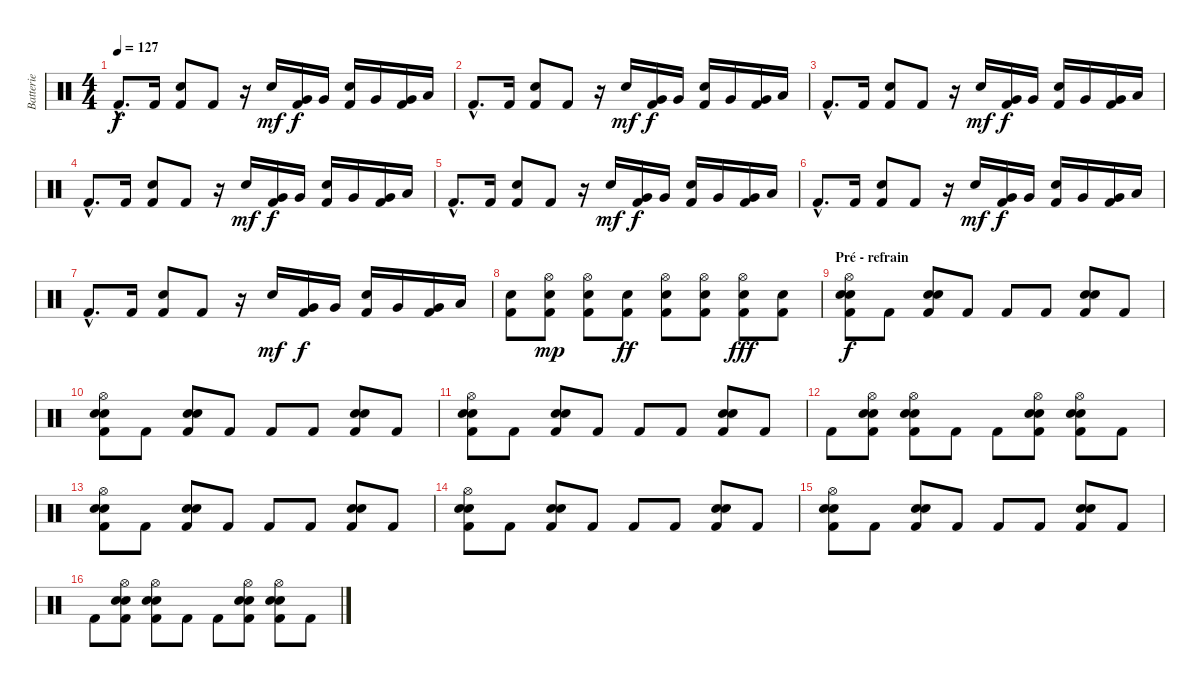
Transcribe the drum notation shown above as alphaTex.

\track ("Batterie" "Batterie") {instrument percussion}
\staff {score}
\articulation defaults
\ts (4 4)
\tempo 127
\clef neutral
\ks c "Kick (hit) 2"{hac}.8{d dy f} "Kick (hit) 2".16
("Electric Snare (hit)" "Kick (hit) 2").8 "Kick (hit) 2".8 r.16 "Electric Snare (hit)".16{dy mf} ("Very Low Tom (hit)" "Kick (hit) 2").16{dy f} "Very Low Tom (hit)".16 ("Electric Snare (hit)" "Kick (hit) 2").16 "Very Low Tom (hit)".16 ("Very Low Tom (hit)" "Kick (hit) 2").16 "Low Floor Tom (hit)".16 |
"Kick (hit) 2"{hac}.8{d} "Kick (hit) 2".16 ("Electric Snare (hit)" "Kick (hit) 2").8 "Kick (hit) 2".8 r.16 "Electric Snare (hit)".16{dy mf} ("Very Low Tom (hit)" "Kick (hit) 2").16{dy f} "Very Low Tom (hit)".16 ("Electric Snare (hit)" "Kick (hit) 2").16 "Very Low Tom (hit)".16 ("Very Low Tom (hit)" "Kick (hit) 2").16 "Low Floor Tom (hit)".16 |
"Kick (hit) 2"{hac}.8{d} "Kick (hit) 2".16 ("Electric Snare (hit)" "Kick (hit) 2").8 "Kick (hit) 2".8 r.16 "Electric Snare (hit)".16{dy mf} ("Very Low Tom (hit)" "Kick (hit) 2").16{dy f} "Very Low Tom (hit)".16 ("Electric Snare (hit)" "Kick (hit) 2").16 "Very Low Tom (hit)".16 ("Very Low Tom (hit)" "Kick (hit) 2").16 "Low Floor Tom (hit)".16 |
"Kick (hit) 2"{hac}.8{d} "Kick (hit) 2".16 ("Electric Snare (hit)" "Kick (hit) 2").8 "Kick (hit) 2".8 r.16 "Electric Snare (hit)".16{dy mf} ("Very Low Tom (hit)" "Kick (hit) 2").16{dy f} "Very Low Tom (hit)".16 ("Electric Snare (hit)" "Kick (hit) 2").16 "Very Low Tom (hit)".16 ("Very Low Tom (hit)" "Kick (hit) 2").16 "Low Floor Tom (hit)".16 |
"Kick (hit) 2"{hac}.8{d} "Kick (hit) 2".16 ("Electric Snare (hit)" "Kick (hit) 2").8 "Kick (hit) 2".8 r.16 "Electric Snare (hit)".16{dy mf} ("Very Low Tom (hit)" "Kick (hit) 2").16{dy f} "Very Low Tom (hit)".16 ("Electric Snare (hit)" "Kick (hit) 2").16 "Very Low Tom (hit)".16 ("Very Low Tom (hit)" "Kick (hit) 2").16 "Low Floor Tom (hit)".16 |
"Kick (hit) 2"{hac}.8{d} "Kick (hit) 2".16 ("Electric Snare (hit)" "Kick (hit) 2").8 "Kick (hit) 2".8 r.16 "Electric Snare (hit)".16{dy mf} ("Very Low Tom (hit)" "Kick (hit) 2").16{dy f} "Very Low Tom (hit)".16 ("Electric Snare (hit)" "Kick (hit) 2").16 "Very Low Tom (hit)".16 ("Very Low Tom (hit)" "Kick (hit) 2").16 "Low Floor Tom (hit)".16 |
"Kick (hit) 2"{hac}.8{d} "Kick (hit) 2".16 ("Electric Snare (hit)" "Kick (hit) 2").8 "Kick (hit) 2".8 r.16 "Electric Snare (hit)".16{dy mf} ("Very Low Tom (hit)" "Kick (hit) 2").16{dy f} "Very Low Tom (hit)".16 ("Electric Snare (hit)" "Kick (hit) 2").16 "Very Low Tom (hit)".16 ("Very Low Tom (hit)" "Kick (hit) 2").16 "Low Floor Tom (hit)".16 |
("Electric Snare (hit)" "Kick (hit) 2").8{volume 16} ("Hi-Hat (open)" "Electric Snare (hit)" "Kick (hit) 2").8{dy mp} ("Hi-Hat (open)" "Electric Snare (hit)" "Kick (hit) 2").8 ("Electric Snare (hit)" "Kick (hit) 2").8{dy ff} ("Hi-Hat (open)" "Electric Snare (hit)" "Kick (hit) 2").8 ("Hi-Hat (open)" "Electric Snare (hit)" "Kick (hit) 2").8 ("Hi-Hat (open)" "Electric Snare (hit)" "Kick (hit) 2").8{dy fff} ("Electric Snare (hit)" "Kick (hit) 2").8 |
\section ("" "Pré - refrain")
("Hi-Hat (open)" "Electric Snare (hit)" "Electric Snare (hit)" "Kick (hit) 2").8{dy f} "Kick (hit) 2".8 ("Electric Snare (hit)" "Electric Snare (hit)" "Kick (hit) 2").8 "Kick (hit) 2".8 "Kick (hit) 2".8 "Kick (hit) 2".8 ("Electric Snare (hit)" "Electric Snare (hit)" "Kick (hit) 2").8 "Kick (hit) 2".8 |
("Hi-Hat (open)" "Electric Snare (hit)" "Electric Snare (hit)" "Kick (hit) 2").8 "Kick (hit) 2".8 ("Electric Snare (hit)" "Electric Snare (hit)" "Kick (hit) 2").8 "Kick (hit) 2".8 "Kick (hit) 2".8 "Kick (hit) 2".8 ("Electric Snare (hit)" "Electric Snare (hit)" "Kick (hit) 2").8 "Kick (hit) 2".8 |
("Hi-Hat (open)" "Electric Snare (hit)" "Electric Snare (hit)" "Kick (hit) 2").8 "Kick (hit) 2".8 ("Electric Snare (hit)" "Electric Snare (hit)" "Kick (hit) 2").8 "Kick (hit) 2".8 "Kick (hit) 2".8 "Kick (hit) 2".8 ("Electric Snare (hit)" "Electric Snare (hit)" "Kick (hit) 2").8 "Kick (hit) 2".8 |
"Kick (hit) 2".8 ("Hi-Hat (open)" "Electric Snare (hit)" "Electric Snare (hit)" "Kick (hit) 2").8 ("Hi-Hat (open)" "Electric Snare (hit)" "Electric Snare (hit)" "Kick (hit) 2").8 "Kick (hit) 2".8 "Kick (hit) 2".8 ("Hi-Hat (open)" "Electric Snare (hit)" "Electric Snare (hit)" "Kick (hit) 2").8 ("Hi-Hat (open)" "Electric Snare (hit)" "Electric Snare (hit)" "Kick (hit) 2").8 "Kick (hit) 2".8 |
("Hi-Hat (open)" "Electric Snare (hit)" "Electric Snare (hit)" "Kick (hit) 2").8 "Kick (hit) 2".8 ("Electric Snare (hit)" "Electric Snare (hit)" "Kick (hit) 2").8 "Kick (hit) 2".8 "Kick (hit) 2".8 "Kick (hit) 2".8 ("Electric Snare (hit)" "Electric Snare (hit)" "Kick (hit) 2").8 "Kick (hit) 2".8 |
("Hi-Hat (open)" "Electric Snare (hit)" "Electric Snare (hit)" "Kick (hit) 2").8 "Kick (hit) 2".8 ("Electric Snare (hit)" "Electric Snare (hit)" "Kick (hit) 2").8 "Kick (hit) 2".8 "Kick (hit) 2".8 "Kick (hit) 2".8 ("Electric Snare (hit)" "Electric Snare (hit)" "Kick (hit) 2").8 "Kick (hit) 2".8 |
("Hi-Hat (open)" "Electric Snare (hit)" "Electric Snare (hit)" "Kick (hit) 2").8 "Kick (hit) 2".8 ("Electric Snare (hit)" "Electric Snare (hit)" "Kick (hit) 2").8 "Kick (hit) 2".8 "Kick (hit) 2".8 "Kick (hit) 2".8 ("Electric Snare (hit)" "Electric Snare (hit)" "Kick (hit) 2").8 "Kick (hit) 2".8 |
"Kick (hit) 2".8 ("Hi-Hat (open)" "Electric Snare (hit)" "Electric Snare (hit)" "Kick (hit) 2").8 ("Hi-Hat (open)" "Electric Snare (hit)" "Electric Snare (hit)" "Kick (hit) 2").8 "Kick (hit) 2".8 "Kick (hit) 2".8 ("Hi-Hat (open)" "Electric Snare (hit)" "Electric Snare (hit)" "Kick (hit) 2").8 ("Hi-Hat (open)" "Electric Snare (hit)" "Electric Snare (hit)" "Kick (hit) 2").8 "Kick (hit) 2".8
